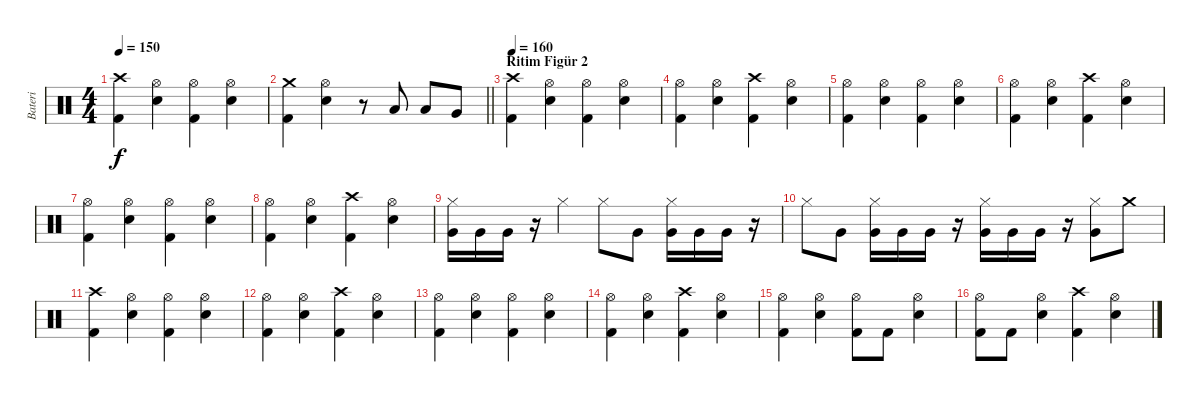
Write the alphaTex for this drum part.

\track ("Bateri" "Bateri") {instrument percussion}
\staff {score}
\articulation defaults
\ts (4 4)
\tempo 150
\clef neutral
\ks c
("Crash high (hit)" "Kick (hit) 2").4{dy f} ("Hi-Hat (open)" "Snare (hit) 2").4 ("Hi-Hat (open)" "Kick (hit) 2").4 ("Hi-Hat (open)" "Snare (hit) 2").4 |
\barLineRight lightlight
("Crash medium (hit)" "Kick (hit) 2").4 ("Hi-Hat (open)" "Snare (hit) 2").4 r.8 "Low Tom (hit)".8 "Low Tom (hit)".8 "Very Low Tom (hit)".8 |
\section ("" "Ritim Figür 2")
\tempo 160
("Crash high (hit)" "Kick (hit) 2").4 ("Hi-Hat (open)" "Snare (hit) 2").4 ("Hi-Hat (open)" "Kick (hit) 2").4 ("Hi-Hat (open)" "Snare (hit) 2").4 |
("Hi-Hat (open)" "Kick (hit) 2").4 ("Hi-Hat (open)" "Snare (hit) 2").4 ("Crash high (hit)" "Kick (hit) 2").4 ("Hi-Hat (open)" "Snare (hit) 2").4 |
("Hi-Hat (open)" "Kick (hit) 2").4 ("Hi-Hat (open)" "Snare (hit) 2").4 ("Hi-Hat (open)" "Kick (hit) 2").4 ("Hi-Hat (open)" "Snare (hit) 2").4 |
("Hi-Hat (open)" "Kick (hit) 2").4 ("Hi-Hat (open)" "Snare (hit) 2").4 ("Crash high (hit)" "Kick (hit) 2").4 ("Hi-Hat (open)" "Snare (hit) 2").4 |
("Hi-Hat (open)" "Kick (hit) 2").4 ("Hi-Hat (open)" "Snare (hit) 2").4 ("Hi-Hat (open)" "Kick (hit) 2").4 ("Hi-Hat (open)" "Snare (hit) 2").4 |
("Hi-Hat (open)" "Kick (hit) 2").4 ("Hi-Hat (open)" "Snare (hit) 2").4 ("Crash high (hit)" "Kick (hit) 2").4 ("Hi-Hat (open)" "Snare (hit) 2").4 |
("Hi-Hat (closed)" "Very Low Tom (hit)").16 "Very Low Tom (hit)".16 "Very Low Tom (hit)".16 r.16 "Hi-Hat (closed)".4 "Hi-Hat (closed)".8 "Very Low Tom (hit)".8 ("Hi-Hat (closed)" "Very Low Tom (hit)").16 "Very Low Tom (hit)".16 "Very Low Tom (hit)".16 r.16 |
"Hi-Hat (closed)".8 "Very Low Tom (hit)".8 ("Hi-Hat (closed)" "Very Low Tom (hit)").16 "Very Low Tom (hit)".16 "Very Low Tom (hit)".16 r.16 ("Hi-Hat (closed)" "Very Low Tom (hit)").16 "Very Low Tom (hit)".16 "Very Low Tom (hit)".16 r.16 ("Hi-Hat (closed)" "Very Low Tom (hit)").8 "Crash medium (hit)".8 |
("Crash high (hit)" "Kick (hit) 2").4 ("Hi-Hat (open)" "Snare (hit) 2").4 ("Hi-Hat (open)" "Kick (hit) 2").4 ("Hi-Hat (open)" "Snare (hit) 2").4 |
("Hi-Hat (open)" "Kick (hit) 2").4 ("Hi-Hat (open)" "Snare (hit) 2").4 ("Crash high (hit)" "Kick (hit) 2").4 ("Hi-Hat (open)" "Snare (hit) 2").4 |
("Hi-Hat (open)" "Kick (hit) 2").4 ("Hi-Hat (open)" "Snare (hit) 2").4 ("Hi-Hat (open)" "Kick (hit) 2").4 ("Hi-Hat (open)" "Snare (hit) 2").4 |
("Hi-Hat (open)" "Kick (hit) 2").4 ("Hi-Hat (open)" "Snare (hit) 2").4 ("Crash high (hit)" "Kick (hit) 2").4 ("Hi-Hat (open)" "Snare (hit) 2").4 |
("Hi-Hat (open)" "Kick (hit) 2").4 ("Hi-Hat (open)" "Snare (hit) 2").4 ("Hi-Hat (open)" "Kick (hit) 2").8 "Kick (hit) 2".8 ("Hi-Hat (open)" "Snare (hit) 2").4 |
("Hi-Hat (open)" "Kick (hit) 2").8 "Kick (hit) 2".8 ("Hi-Hat (open)" "Snare (hit) 2").4 ("Crash high (hit)" "Kick (hit) 2").4 ("Hi-Hat (open)" "Snare (hit) 2").4
